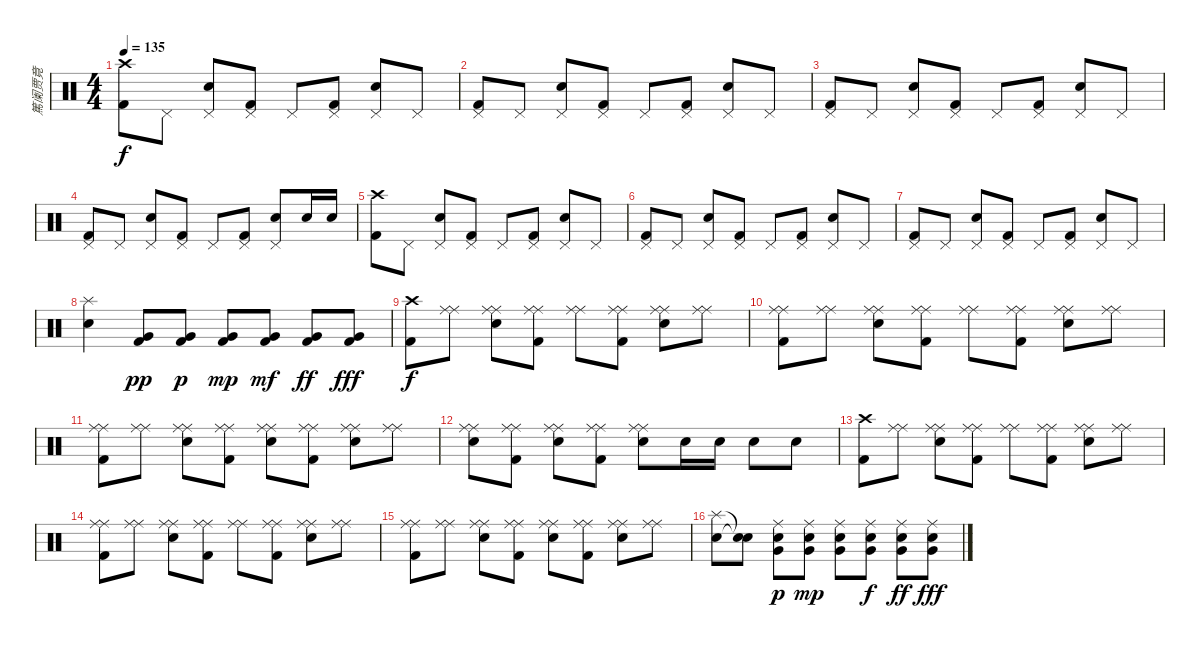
\track ("篤阑贾竟" "篤阑贾竟") {instrument percussion}
\staff {score}
\articulation defaults
\ts (4 4)
\tempo 135
\clef neutral
\ks c
("Crash high (hit)" "Kick (hit) 2").8{dy f} "Pedal Hi-Hat (hit)".8 ("Pedal Hi-Hat (hit)" "Electric Snare (hit)").8 ("Pedal Hi-Hat (hit)" "Kick (hit) 2").8 "Pedal Hi-Hat (hit)".8 ("Pedal Hi-Hat (hit)" "Kick (hit) 2").8 ("Pedal Hi-Hat (hit)" "Electric Snare (hit)").8 "Pedal Hi-Hat (hit)".8 |
("Pedal Hi-Hat (hit)" "Kick (hit) 2").8 "Pedal Hi-Hat (hit)".8 ("Pedal Hi-Hat (hit)" "Electric Snare (hit)").8 ("Pedal Hi-Hat (hit)" "Kick (hit) 2").8 "Pedal Hi-Hat (hit)".8 ("Pedal Hi-Hat (hit)" "Kick (hit) 2").8 ("Pedal Hi-Hat (hit)" "Electric Snare (hit)").8 "Pedal Hi-Hat (hit)".8 |
("Pedal Hi-Hat (hit)" "Kick (hit) 2").8 "Pedal Hi-Hat (hit)".8 ("Pedal Hi-Hat (hit)" "Electric Snare (hit)").8 ("Pedal Hi-Hat (hit)" "Kick (hit) 2").8 "Pedal Hi-Hat (hit)".8 ("Pedal Hi-Hat (hit)" "Kick (hit) 2").8 ("Pedal Hi-Hat (hit)" "Electric Snare (hit)").8 "Pedal Hi-Hat (hit)".8 |
("Pedal Hi-Hat (hit)" "Kick (hit) 2").8 "Pedal Hi-Hat (hit)".8 ("Pedal Hi-Hat (hit)" "Electric Snare (hit)").8 ("Pedal Hi-Hat (hit)" "Kick (hit) 2").8 "Pedal Hi-Hat (hit)".8 ("Pedal Hi-Hat (hit)" "Kick (hit) 2").8 ("Pedal Hi-Hat (hit)" "Electric Snare (hit)").8 "Electric Snare (hit)".16 "Electric Snare (hit)".16 |
("Crash high (hit)" "Kick (hit) 2").8 "Pedal Hi-Hat (hit)".8 ("Pedal Hi-Hat (hit)" "Electric Snare (hit)").8 ("Pedal Hi-Hat (hit)" "Kick (hit) 2").8 "Pedal Hi-Hat (hit)".8 ("Pedal Hi-Hat (hit)" "Kick (hit) 2").8 ("Pedal Hi-Hat (hit)" "Electric Snare (hit)").8 "Pedal Hi-Hat (hit)".8 |
("Pedal Hi-Hat (hit)" "Kick (hit) 2").8 "Pedal Hi-Hat (hit)".8 ("Pedal Hi-Hat (hit)" "Electric Snare (hit)").8 ("Pedal Hi-Hat (hit)" "Kick (hit) 2").8 "Pedal Hi-Hat (hit)".8 ("Pedal Hi-Hat (hit)" "Kick (hit) 2").8 ("Pedal Hi-Hat (hit)" "Electric Snare (hit)").8 "Pedal Hi-Hat (hit)".8 |
("Pedal Hi-Hat (hit)" "Kick (hit) 2").8 "Pedal Hi-Hat (hit)".8 ("Pedal Hi-Hat (hit)" "Electric Snare (hit)").8 ("Pedal Hi-Hat (hit)" "Kick (hit) 2").8 "Pedal Hi-Hat (hit)".8 ("Pedal Hi-Hat (hit)" "Kick (hit) 2").8 ("Pedal Hi-Hat (hit)" "Electric Snare (hit)").8 "Pedal Hi-Hat (hit)".8 |
("Splash (hit)" "Electric Snare (hit)").4 ("Very Low Tom (hit)" "Kick (hit) 2").8{dy pp} ("Very Low Tom (hit)" "Kick (hit) 2").8{dy p} ("Very Low Tom (hit)" "Kick (hit) 2").8{dy mp} ("Very Low Tom (hit)" "Kick (hit) 2").8{dy mf} ("Very Low Tom (hit)" "Kick (hit) 2").8{dy ff} ("Very Low Tom (hit)" "Kick (hit) 2").8{dy fff} |
("Crash high (hit)" "Kick (hit) 2").8{dy f} ("Ride (middle)" "Ride (middle)").8 ("Ride (middle)" "Electric Snare (hit)" "Ride (middle)").8 ("Ride (middle)" "Kick (hit) 2" "Ride (middle)").8 ("Ride (middle)" "Ride (middle)").8 ("Ride (middle)" "Kick (hit) 2" "Ride (middle)").8 ("Ride (middle)" "Electric Snare (hit)" "Ride (middle)").8 ("Ride (middle)" "Ride (middle)").8 |
("Ride (middle)" "Kick (hit) 2" "Ride (middle)").8 ("Ride (middle)" "Ride (middle)").8 ("Ride (middle)" "Electric Snare (hit)" "Ride (middle)").8 ("Ride (middle)" "Kick (hit) 2" "Ride (middle)").8 ("Ride (middle)" "Ride (middle)").8 ("Ride (middle)" "Kick (hit) 2" "Ride (middle)").8 ("Ride (middle)" "Electric Snare (hit)" "Ride (middle)").8 ("Ride (middle)" "Ride (middle)").8 |
("Ride (middle)" "Kick (hit) 2" "Ride (middle)").8 ("Ride (middle)" "Ride (middle)").8 ("Ride (middle)" "Electric Snare (hit)" "Ride (middle)").8 ("Ride (middle)" "Kick (hit) 2" "Ride (middle)").8 ("Ride (middle)" "Electric Snare (hit)" "Ride (middle)").8 ("Ride (middle)" "Kick (hit) 2" "Ride (middle)").8 ("Ride (middle)" "Electric Snare (hit)" "Ride (middle)").8 ("Ride (middle)" "Ride (middle)").8 |
("Ride (middle)" "Electric Snare (hit)" "Ride (middle)").8 ("Ride (middle)" "Kick (hit) 2" "Ride (middle)").8 ("Ride (middle)" "Electric Snare (hit)" "Ride (middle)").8 ("Ride (middle)" "Kick (hit) 2" "Ride (middle)").8 ("Ride (middle)" "Electric Snare (hit)" "Ride (middle)").8 "Electric Snare (hit)".16 "Electric Snare (hit)".16 "Electric Snare (hit)".8 "Electric Snare (hit)".8 |
("Crash high (hit)" "Kick (hit) 2").8 ("Ride (middle)" "Ride (middle)").8 ("Ride (middle)" "Electric Snare (hit)" "Ride (middle)").8 ("Ride (middle)" "Kick (hit) 2" "Ride (middle)").8 ("Ride (middle)" "Ride (middle)").8 ("Ride (middle)" "Kick (hit) 2" "Ride (middle)").8 ("Ride (middle)" "Electric Snare (hit)" "Ride (middle)").8 ("Ride (middle)" "Ride (middle)").8 |
("Ride (middle)" "Kick (hit) 2" "Ride (middle)").8 ("Ride (middle)" "Ride (middle)").8 ("Ride (middle)" "Electric Snare (hit)" "Ride (middle)").8 ("Ride (middle)" "Kick (hit) 2" "Ride (middle)").8 ("Ride (middle)" "Ride (middle)").8 ("Ride (middle)" "Kick (hit) 2" "Ride (middle)").8 ("Ride (middle)" "Electric Snare (hit)" "Ride (middle)").8 ("Ride (middle)" "Ride (middle)").8 |
("Ride (middle)" "Kick (hit) 2" "Ride (middle)").8 ("Ride (middle)" "Ride (middle)").8 ("Ride (middle)" "Electric Snare (hit)" "Ride (middle)").8 ("Ride (middle)" "Kick (hit) 2" "Ride (middle)").8 ("Ride (middle)" "Electric Snare (hit)" "Ride (middle)").8 ("Ride (middle)" "Kick (hit) 2" "Ride (middle)").8 ("Ride (middle)" "Electric Snare (hit)" "Ride (middle)").8 ("Ride (middle)" "Ride (middle)").8 |
("Splash (hit)" "Electric Snare (hit)").8 ("Snare (hit)"{t} "Snare (hit)"{t}).8 ("Ride (middle)" "Electric Snare (hit)" "Very Low Tom (hit)").8{dy p} ("Ride (middle)" "Electric Snare (hit)" "Very Low Tom (hit)").8{dy mp} ("Ride (middle)" "Electric Snare (hit)" "Very Low Tom (hit)").8 ("Ride (middle)" "Electric Snare (hit)" "Very Low Tom (hit)").8{dy f} ("Ride (middle)" "Electric Snare (hit)" "Very Low Tom (hit)").8{dy ff} ("Ride (middle)" "Electric Snare (hit)" "Very Low Tom (hit)").8{dy fff}
